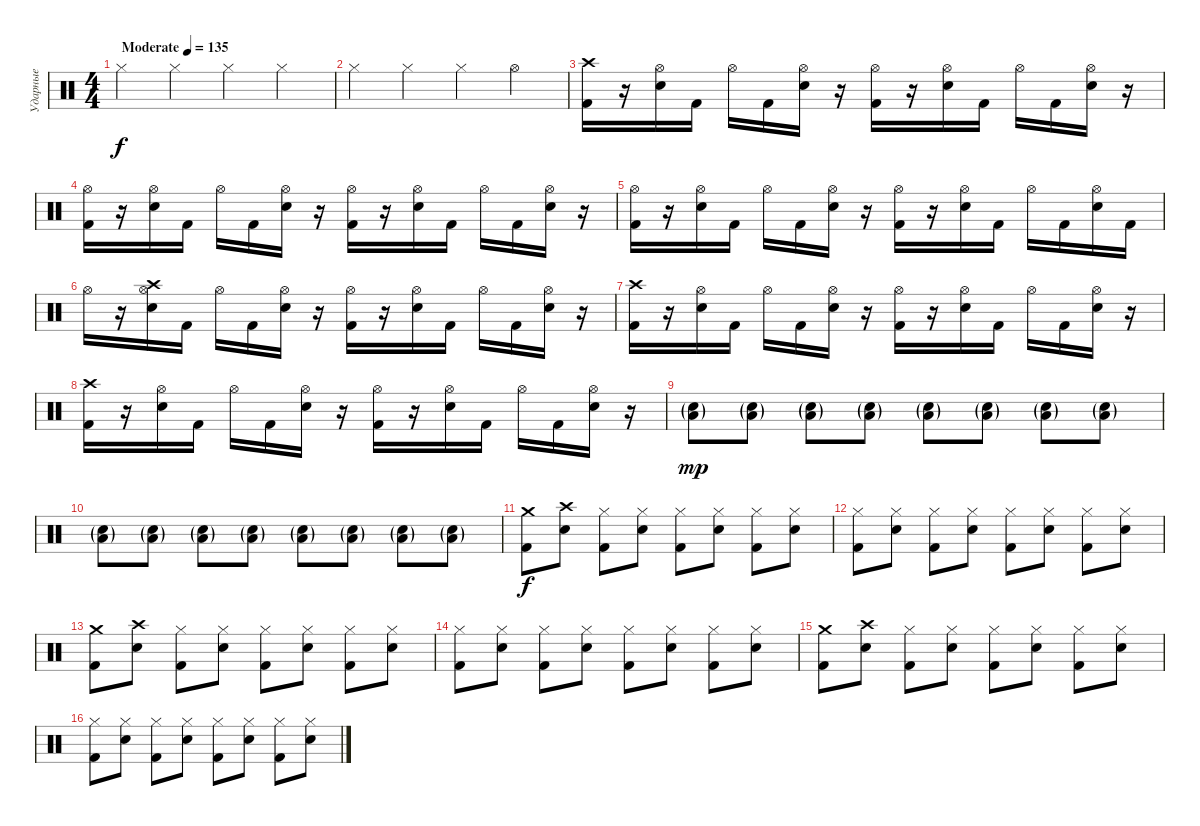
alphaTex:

\track ("Ударные" "Ударные") {instrument percussion}
\staff {score}
\articulation defaults
\ts (4 4)
\tempo (135 "Moderate")
\clef neutral
\ks c "Hi-Hat (closed)".4{dy f} "Hi-Hat (closed)".4 "Hi-Hat (closed)".4 "Hi-Hat (closed)".4
|
"Hi-Hat (closed)".4 "Hi-Hat (closed)".4 "Hi-Hat (closed)".4 "Hi-Hat (open)".4 |
("Crash high (hit)" "Kick (hit) 2").16 r.16 ("Hi-Hat (open)" "Electric Snare (hit)").16 "Kick (hit) 2".16 "Hi-Hat (open)".16 "Kick (hit) 2".16 ("Hi-Hat (open)" "Electric Snare (hit)").16 r.16 ("Hi-Hat (open)" "Kick (hit) 2").16 r.16 ("Hi-Hat (open)" "Electric Snare (hit)").16 "Kick (hit) 2".16 "Hi-Hat (open)".16 "Kick (hit) 2".16 ("Hi-Hat (open)" "Electric Snare (hit)").16 r.16 |
("Hi-Hat (open)" "Kick (hit) 2").16 r.16 ("Hi-Hat (open)" "Electric Snare (hit)").16 "Kick (hit) 2".16 "Hi-Hat (open)".16 "Kick (hit) 2".16 ("Hi-Hat (open)" "Electric Snare (hit)").16 r.16 ("Hi-Hat (open)" "Kick (hit) 2").16 r.16 ("Hi-Hat (open)" "Electric Snare (hit)").16 "Kick (hit) 2".16 "Hi-Hat (open)".16 "Kick (hit) 2".16 ("Hi-Hat (open)" "Electric Snare (hit)").16 r.16 |
("Hi-Hat (open)" "Kick (hit) 2").16 r.16 ("Hi-Hat (open)" "Electric Snare (hit)").16 "Kick (hit) 2".16 "Hi-Hat (open)".16 "Kick (hit) 2".16 ("Hi-Hat (open)" "Electric Snare (hit)").16 r.16 ("Hi-Hat (open)" "Kick (hit) 2").16 r.16 ("Hi-Hat (open)" "Electric Snare (hit)").16 "Kick (hit) 2".16 "Hi-Hat (open)".16 "Kick (hit) 2".16 ("Hi-Hat (open)" "Electric Snare (hit)").16 "Kick (hit) 2".16 |
"Hi-Hat (open)".16 r.16 ("Hi-Hat (open)" "Crash high (hit)" "Electric Snare (hit)").16 "Kick (hit) 2".16 "Hi-Hat (open)".16 "Kick (hit) 2".16 ("Hi-Hat (open)" "Electric Snare (hit)").16 r.16 ("Hi-Hat (open)" "Kick (hit) 2").16 r.16 ("Hi-Hat (open)" "Electric Snare (hit)").16 "Kick (hit) 2".16 "Hi-Hat (open)".16 "Kick (hit) 2".16 ("Hi-Hat (open)" "Electric Snare (hit)").16 r.16 |
("Crash high (hit)" "Kick (hit) 2").16 r.16 ("Hi-Hat (open)" "Electric Snare (hit)").16 "Kick (hit) 2".16 "Hi-Hat (open)".16 "Kick (hit) 2".16 ("Hi-Hat (open)" "Electric Snare (hit)").16 r.16 ("Hi-Hat (open)" "Kick (hit) 2").16 r.16 ("Hi-Hat (open)" "Electric Snare (hit)").16 "Kick (hit) 2".16 "Hi-Hat (open)".16 "Kick (hit) 2".16 ("Hi-Hat (open)" "Electric Snare (hit)").16 r.16 |
("Crash high (hit)" "Kick (hit) 2").16 r.16 ("Hi-Hat (open)" "Electric Snare (hit)").16 "Kick (hit) 2".16 "Hi-Hat (open)".16 "Kick (hit) 2".16 ("Hi-Hat (open)" "Electric Snare (hit)").16 r.16 ("Hi-Hat (open)" "Kick (hit) 2").16 r.16 ("Hi-Hat (open)" "Electric Snare (hit)").16 "Kick (hit) 2".16 "Hi-Hat (open)".16 "Kick (hit) 2".16 ("Hi-Hat (open)" "Electric Snare (hit)").16 r.16 |
("Low Floor Tom (hit)"{g} "Electric Snare (hit)"{g}).8{dy mp} ("Low Floor Tom (hit)"{g} "Electric Snare (hit)"{g}).8 ("Low Floor Tom (hit)"{g} "Electric Snare (hit)"{g}).8 ("Low Floor Tom (hit)"{g} "Electric Snare (hit)"{g}).8 ("Low Floor Tom (hit)"{g} "Electric Snare (hit)"{g}).8 ("Low Floor Tom (hit)"{g} "Electric Snare (hit)"{g}).8 ("Low Floor Tom (hit)"{g} "Electric Snare (hit)"{g}).8 ("Low Floor Tom (hit)"{g} "Electric Snare (hit)"{g}).8 |
("Low Floor Tom (hit)"{g} "Electric Snare (hit)"{g}).8 ("Low Floor Tom (hit)"{g} "Electric Snare (hit)"{g}).8 ("Low Floor Tom (hit)"{g} "Electric Snare (hit)"{g}).8 ("Low Floor Tom (hit)"{g} "Electric Snare (hit)"{g}).8 ("Low Floor Tom (hit)"{g} "Electric Snare (hit)"{g}).8 ("Low Floor Tom (hit)"{g} "Electric Snare (hit)"{g}).8 ("Low Floor Tom (hit)"{g} "Electric Snare (hit)"{g}).8 ("Low Floor Tom (hit)"{g} "Electric Snare (hit)"{g}).8 |
("Crash medium (hit)" "Kick (hit) 2").8{dy f} ("Crash high (hit)" "Electric Snare (hit)").8 ("Hi-Hat (closed)" "Kick (hit) 2").8 ("Hi-Hat (closed)" "Electric Snare (hit)").8 ("Hi-Hat (closed)" "Kick (hit) 2").8 ("Hi-Hat (closed)" "Electric Snare (hit)").8 ("Hi-Hat (closed)" "Kick (hit) 2").8 ("Hi-Hat (closed)" "Electric Snare (hit)").8 |
("Hi-Hat (closed)" "Kick (hit) 2").8 ("Hi-Hat (closed)" "Electric Snare (hit)").8 ("Hi-Hat (closed)" "Kick (hit) 2").8 ("Hi-Hat (closed)" "Electric Snare (hit)").8 ("Hi-Hat (closed)" "Kick (hit) 2").8 ("Hi-Hat (closed)" "Electric Snare (hit)").8 ("Hi-Hat (closed)" "Kick (hit) 2").8 ("Hi-Hat (closed)" "Electric Snare (hit)").8 |
("Crash medium (hit)" "Kick (hit) 2").8 ("Crash high (hit)" "Electric Snare (hit)").8 ("Hi-Hat (closed)" "Kick (hit) 2").8 ("Hi-Hat (closed)" "Electric Snare (hit)").8 ("Hi-Hat (closed)" "Kick (hit) 2").8 ("Hi-Hat (closed)" "Electric Snare (hit)").8 ("Hi-Hat (closed)" "Kick (hit) 2").8 ("Hi-Hat (closed)" "Electric Snare (hit)").8 |
("Hi-Hat (closed)" "Kick (hit) 2").8 ("Hi-Hat (closed)" "Electric Snare (hit)").8 ("Hi-Hat (closed)" "Kick (hit) 2").8 ("Hi-Hat (closed)" "Electric Snare (hit)").8 ("Hi-Hat (closed)" "Kick (hit) 2").8 ("Hi-Hat (closed)" "Electric Snare (hit)").8 ("Hi-Hat (closed)" "Kick (hit) 2").8 ("Hi-Hat (closed)" "Electric Snare (hit)").8 |
("Crash medium (hit)" "Kick (hit) 2").8 ("Crash high (hit)" "Electric Snare (hit)").8 ("Hi-Hat (closed)" "Kick (hit) 2").8 ("Hi-Hat (closed)" "Electric Snare (hit)").8 ("Hi-Hat (closed)" "Kick (hit) 2").8 ("Hi-Hat (closed)" "Electric Snare (hit)").8 ("Hi-Hat (closed)" "Kick (hit) 2").8 ("Hi-Hat (closed)" "Electric Snare (hit)").8 |
("Hi-Hat (closed)" "Kick (hit) 2").8 ("Hi-Hat (closed)" "Electric Snare (hit)").8 ("Hi-Hat (closed)" "Kick (hit) 2").8 ("Hi-Hat (closed)" "Electric Snare (hit)").8 ("Hi-Hat (closed)" "Kick (hit) 2").8 ("Hi-Hat (closed)" "Electric Snare (hit)").8 ("Hi-Hat (closed)" "Kick (hit) 2").8 ("Hi-Hat (closed)" "Electric Snare (hit)").8
